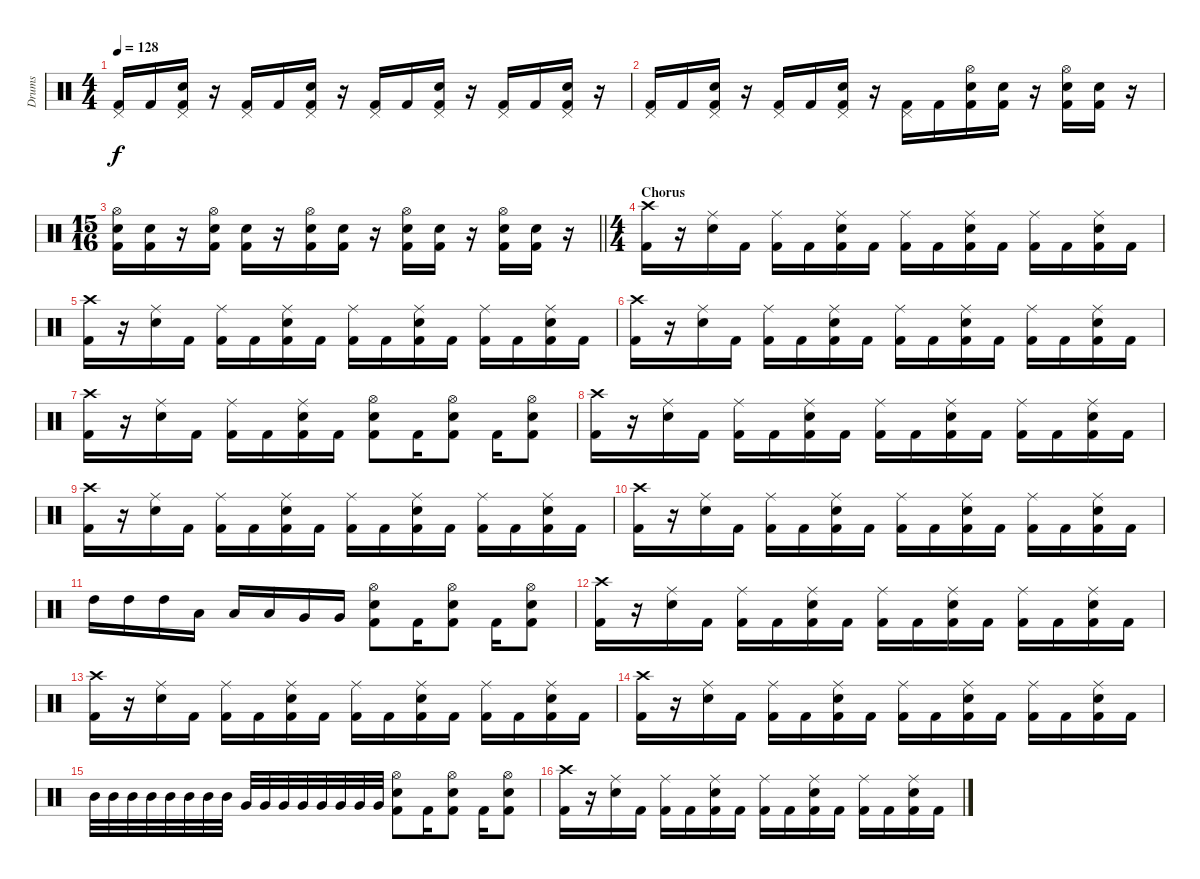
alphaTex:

\track ("Drums" "Drums") {instrument percussion}
\staff {score}
\articulation defaults
\ts (4 4)
\tempo 128
\clef neutral
\ks c
("Pedal Hi-Hat (hit)" "Kick (hit) 2").16{dy f} "Kick (hit) 2".16 ("Pedal Hi-Hat (hit)" "Snare (hit) 2" "Kick (hit) 2").16 r.16 ("Pedal Hi-Hat (hit)" "Kick (hit) 2").16 "Kick (hit) 2".16 ("Pedal Hi-Hat (hit)" "Snare (hit) 2" "Kick (hit) 2").16 r.16 ("Pedal Hi-Hat (hit)" "Kick (hit) 2").16 "Kick (hit) 2".16 ("Pedal Hi-Hat (hit)" "Snare (hit) 2" "Kick (hit) 2").16 r.16 ("Pedal Hi-Hat (hit)" "Kick (hit) 2").16 "Kick (hit) 2".16 ("Pedal Hi-Hat (hit)" "Snare (hit) 2" "Kick (hit) 2").16 r.16 |
("Pedal Hi-Hat (hit)" "Kick (hit) 2").16 "Kick (hit) 2".16 ("Pedal Hi-Hat (hit)" "Snare (hit) 2" "Kick (hit) 2").16 r.16 ("Pedal Hi-Hat (hit)" "Kick (hit) 2").16 "Kick (hit) 2".16 ("Pedal Hi-Hat (hit)" "Snare (hit) 2" "Kick (hit) 2").16 r.16 ("Pedal Hi-Hat (hit)" "Kick (hit) 2").16 "Kick (hit) 2".16 ("Hi-Hat (open)" "Snare (hit) 2" "Kick (hit) 2").16 ("Snare (hit) 2" "Kick (hit) 2").16 r.16 ("Hi-Hat (open)" "Snare (hit) 2" "Kick (hit) 2").16 ("Snare (hit) 2" "Kick (hit) 2").16 r.16 |
\ts (15 16)
\barLineRight lightlight
("Hi-Hat (open)" "Snare (hit) 2" "Kick (hit) 2").16 ("Snare (hit) 2" "Kick (hit) 2").16 r.16 ("Hi-Hat (open)" "Snare (hit) 2" "Kick (hit) 2").16 ("Snare (hit) 2" "Kick (hit) 2").16 r.16 ("Hi-Hat (open)" "Snare (hit) 2" "Kick (hit) 2").16 ("Snare (hit) 2" "Kick (hit) 2").16 r.16 ("Hi-Hat (open)" "Snare (hit) 2" "Kick (hit) 2").16 ("Snare (hit) 2" "Kick (hit) 2").16 r.16 ("Hi-Hat (open)" "Snare (hit) 2" "Kick (hit) 2").16 ("Snare (hit) 2" "Kick (hit) 2").16 r.16 |
\ts (4 4)
\section ("" "Chorus")
("Crash high (hit)" "Kick (hit) 2").16 r.16 ("Ride (middle)" "Snare (hit) 2").16 "Kick (hit) 2".16 ("Ride (middle)" "Kick (hit) 2").16 "Kick (hit) 2".16 ("Ride (middle)" "Snare (hit) 2" "Kick (hit) 2").16 "Kick (hit) 2".16 ("Ride (middle)" "Kick (hit) 2").16 "Kick (hit) 2".16 ("Ride (middle)" "Snare (hit) 2" "Kick (hit) 2").16 "Kick (hit) 2".16 ("Ride (middle)" "Kick (hit) 2").16 "Kick (hit) 2".16 ("Ride (middle)" "Snare (hit) 2" "Kick (hit) 2").16 "Kick (hit) 2".16 |
("Crash high (hit)" "Kick (hit) 2").16 r.16 ("Ride (middle)" "Snare (hit) 2").16 "Kick (hit) 2".16 ("Ride (middle)" "Kick (hit) 2").16 "Kick (hit) 2".16 ("Ride (middle)" "Snare (hit) 2" "Kick (hit) 2").16 "Kick (hit) 2".16 ("Ride (middle)" "Kick (hit) 2").16 "Kick (hit) 2".16 ("Ride (middle)" "Snare (hit) 2" "Kick (hit) 2").16 "Kick (hit) 2".16 ("Ride (middle)" "Kick (hit) 2").16 "Kick (hit) 2".16 ("Ride (middle)" "Snare (hit) 2" "Kick (hit) 2").16 "Kick (hit) 2".16 |
("Crash high (hit)" "Kick (hit) 2").16 r.16 ("Ride (middle)" "Snare (hit) 2").16 "Kick (hit) 2".16 ("Ride (middle)" "Kick (hit) 2").16 "Kick (hit) 2".16 ("Ride (middle)" "Snare (hit) 2" "Kick (hit) 2").16 "Kick (hit) 2".16 ("Ride (middle)" "Kick (hit) 2").16 "Kick (hit) 2".16 ("Ride (middle)" "Snare (hit) 2" "Kick (hit) 2").16 "Kick (hit) 2".16 ("Ride (middle)" "Kick (hit) 2").16 "Kick (hit) 2".16 ("Ride (middle)" "Snare (hit) 2" "Kick (hit) 2").16 "Kick (hit) 2".16 |
("Crash high (hit)" "Kick (hit) 2").16 r.16 ("Ride (middle)" "Snare (hit) 2").16 "Kick (hit) 2".16 ("Ride (middle)" "Kick (hit) 2").16 "Kick (hit) 2".16 ("Ride (middle)" "Snare (hit) 2" "Kick (hit) 2").16 "Kick (hit) 2".16 ("Hi-Hat (open)" "Snare (hit) 2" "Kick (hit) 2").8 "Kick (hit) 2".16 ("Hi-Hat (open)" "Snare (hit) 2" "Kick (hit) 2").8 "Kick (hit) 2".16 ("Hi-Hat (open)" "Snare (hit) 2" "Kick (hit) 2").8 |
("Crash high (hit)" "Kick (hit) 2").16 r.16 ("Ride (middle)" "Snare (hit) 2").16 "Kick (hit) 2".16 ("Ride (middle)" "Kick (hit) 2").16 "Kick (hit) 2".16 ("Ride (middle)" "Snare (hit) 2" "Kick (hit) 2").16 "Kick (hit) 2".16 ("Ride (middle)" "Kick (hit) 2").16 "Kick (hit) 2".16 ("Ride (middle)" "Snare (hit) 2" "Kick (hit) 2").16 "Kick (hit) 2".16 ("Ride (middle)" "Kick (hit) 2").16 "Kick (hit) 2".16 ("Ride (middle)" "Snare (hit) 2" "Kick (hit) 2").16 "Kick (hit) 2".16 |
("Crash high (hit)" "Kick (hit) 2").16 r.16 ("Ride (middle)" "Snare (hit) 2").16 "Kick (hit) 2".16 ("Ride (middle)" "Kick (hit) 2").16 "Kick (hit) 2".16 ("Ride (middle)" "Snare (hit) 2" "Kick (hit) 2").16 "Kick (hit) 2".16 ("Ride (middle)" "Kick (hit) 2").16 "Kick (hit) 2".16 ("Ride (middle)" "Snare (hit) 2" "Kick (hit) 2").16 "Kick (hit) 2".16 ("Ride (middle)" "Kick (hit) 2").16 "Kick (hit) 2".16 ("Ride (middle)" "Snare (hit) 2" "Kick (hit) 2").16 "Kick (hit) 2".16 |
("Crash high (hit)" "Kick (hit) 2").16 r.16 ("Ride (middle)" "Snare (hit) 2").16 "Kick (hit) 2".16 ("Ride (middle)" "Kick (hit) 2").16 "Kick (hit) 2".16 ("Ride (middle)" "Snare (hit) 2" "Kick (hit) 2").16 "Kick (hit) 2".16 ("Ride (middle)" "Kick (hit) 2").16 "Kick (hit) 2".16 ("Ride (middle)" "Snare (hit) 2" "Kick (hit) 2").16 "Kick (hit) 2".16 ("Ride (middle)" "Kick (hit) 2").16 "Kick (hit) 2".16 ("Ride (middle)" "Snare (hit) 2" "Kick (hit) 2").16 "Kick (hit) 2".16 |
"High Tom (hit)".16 "High Tom (hit)".16 "High Tom (hit)".16 "Low Tom (hit)".16 "Low Tom (hit)".16 "Low Tom (hit)".16 "Very Low Tom (hit)".16 "Very Low Tom (hit)".16 ("Hi-Hat (open)" "Snare (hit) 2" "Kick (hit) 2").8 "Kick (hit) 2".16 ("Hi-Hat (open)" "Snare (hit) 2" "Kick (hit) 2").8 "Kick (hit) 2".16 ("Hi-Hat (open)" "Snare (hit) 2" "Kick (hit) 2").8 |
("Crash high (hit)" "Kick (hit) 2").16 r.16 ("Ride (middle)" "Snare (hit) 2").16 "Kick (hit) 2".16 ("Ride (middle)" "Kick (hit) 2").16 "Kick (hit) 2".16 ("Ride (middle)" "Snare (hit) 2" "Kick (hit) 2").16 "Kick (hit) 2".16 ("Ride (middle)" "Kick (hit) 2").16 "Kick (hit) 2".16 ("Ride (middle)" "Snare (hit) 2" "Kick (hit) 2").16 "Kick (hit) 2".16 ("Ride (middle)" "Kick (hit) 2").16 "Kick (hit) 2".16 ("Ride (middle)" "Snare (hit) 2" "Kick (hit) 2").16 "Kick (hit) 2".16 |
("Crash high (hit)" "Kick (hit) 2").16 r.16 ("Ride (middle)" "Snare (hit) 2").16 "Kick (hit) 2".16 ("Ride (middle)" "Kick (hit) 2").16 "Kick (hit) 2".16 ("Ride (middle)" "Snare (hit) 2" "Kick (hit) 2").16 "Kick (hit) 2".16 ("Ride (middle)" "Kick (hit) 2").16 "Kick (hit) 2".16 ("Ride (middle)" "Snare (hit) 2" "Kick (hit) 2").16 "Kick (hit) 2".16 ("Ride (middle)" "Kick (hit) 2").16 "Kick (hit) 2".16 ("Ride (middle)" "Snare (hit) 2" "Kick (hit) 2").16 "Kick (hit) 2".16 |
("Crash high (hit)" "Kick (hit) 2").16 r.16 ("Ride (middle)" "Snare (hit) 2").16 "Kick (hit) 2".16 ("Ride (middle)" "Kick (hit) 2").16 "Kick (hit) 2".16 ("Ride (middle)" "Snare (hit) 2" "Kick (hit) 2").16 "Kick (hit) 2".16 ("Ride (middle)" "Kick (hit) 2").16 "Kick (hit) 2".16 ("Ride (middle)" "Snare (hit) 2" "Kick (hit) 2").16 "Kick (hit) 2".16 ("Ride (middle)" "Kick (hit) 2").16 "Kick (hit) 2".16 ("Ride (middle)" "Snare (hit) 2" "Kick (hit) 2").16 "Kick (hit) 2".16 |
"Mid Tom (hit)".32 "Mid Tom (hit)".32 "Mid Tom (hit)".32 "Mid Tom (hit)".32 "Mid Tom (hit)".32 "Mid Tom (hit)".32 "Mid Tom (hit)".32 "Mid Tom (hit)".32 "Very Low Tom (hit)".32 "Very Low Tom (hit)".32 "Very Low Tom (hit)".32 "Very Low Tom (hit)".32 "Very Low Tom (hit)".32 "Very Low Tom (hit)".32 "Very Low Tom (hit)".32 "Very Low Tom (hit)".32 ("Hi-Hat (open)" "Snare (hit) 2" "Kick (hit) 2").8 "Kick (hit) 2".16 ("Hi-Hat (open)" "Snare (hit) 2" "Kick (hit) 2").8 "Kick (hit) 2".16 ("Hi-Hat (open)" "Snare (hit) 2" "Kick (hit) 2").8 |
("Crash high (hit)" "Kick (hit) 2").16 r.16 ("Ride (middle)" "Snare (hit) 2").16 "Kick (hit) 2".16 ("Ride (middle)" "Kick (hit) 2").16 "Kick (hit) 2".16 ("Ride (middle)" "Snare (hit) 2" "Kick (hit) 2").16 "Kick (hit) 2".16 ("Ride (middle)" "Kick (hit) 2").16 "Kick (hit) 2".16 ("Ride (middle)" "Snare (hit) 2" "Kick (hit) 2").16 "Kick (hit) 2".16 ("Ride (middle)" "Kick (hit) 2").16 "Kick (hit) 2".16 ("Ride (middle)" "Snare (hit) 2" "Kick (hit) 2").16 "Kick (hit) 2".16
